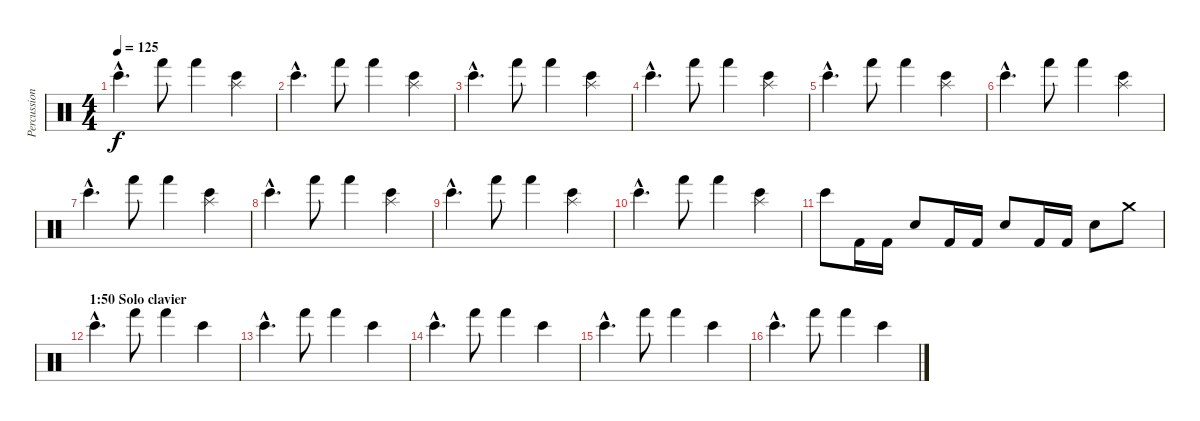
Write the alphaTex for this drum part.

\track ("Percussions" "Percussion") {instrument percussion}
\staff {score}
\articulation defaults
\ts (4 4)
\tempo 125
\clef neutral
\ks c "Bongo High (hit)"{hac}.4{d dy f} "Hand (hit)".8 "Hand (hit)".4
("Splash (hit)" "Bongo High (hit)").4 |
"Bongo High (hit)"{hac}.4{d} "Hand (hit)".8 "Hand (hit)".4 ("Splash (hit)" "Bongo High (hit)").4 |
"Bongo High (hit)"{hac}.4{d} "Hand (hit)".8 "Hand (hit)".4 ("Splash (hit)" "Bongo High (hit)").4 |
"Bongo High (hit)"{hac}.4{d} "Hand (hit)".8 "Hand (hit)".4 ("Splash (hit)" "Bongo High (hit)").4 |
"Bongo High (hit)"{hac}.4{d} "Hand (hit)".8 "Hand (hit)".4 ("Splash (hit)" "Bongo High (hit)").4 |
"Bongo High (hit)"{hac}.4{d} "Hand (hit)".8 "Hand (hit)".4 ("Splash (hit)" "Bongo High (hit)").4 |
"Bongo High (hit)"{hac}.4{d} "Hand (hit)".8 "Hand (hit)".4 ("Splash (hit)" "Bongo High (hit)").4 |
"Bongo High (hit)"{hac}.4{d} "Hand (hit)".8 "Hand (hit)".4 ("Splash (hit)" "Bongo High (hit)").4 |
"Bongo High (hit)"{hac}.4{d} "Hand (hit)".8 "Hand (hit)".4 ("Splash (hit)" "Bongo High (hit)").4 |
"Bongo High (hit)"{hac}.4{d} "Hand (hit)".8 "Hand (hit)".4 ("Splash (hit)" "Bongo High (hit)").4 |
"Bongo High (hit)".8 "Kick (hit) 2".16 "Kick (hit) 2".16 "Electric Snare (hit)".8 "Kick (hit) 2".16 "Kick (hit) 2".16 "Snare (hit) 2".8 "Kick (hit) 2".16 "Kick (hit) 2".16 "Electric Snare (hit)".8 "Crash medium (hit)".8 |
\section ("" "1:50 Solo clavier")
"Bongo High (hit)"{hac}.4{d} "Hand (hit)".8 "Hand (hit)".4 "Bongo High (hit)".4 |
"Bongo High (hit)"{hac}.4{d} "Hand (hit)".8 "Hand (hit)".4 "Bongo High (hit)".4 |
"Bongo High (hit)"{hac}.4{d} "Hand (hit)".8 "Hand (hit)".4 "Bongo High (hit)".4 |
"Bongo High (hit)"{hac}.4{d} "Hand (hit)".8 "Hand (hit)".4 "Bongo High (hit)".4 |
"Bongo High (hit)"{hac}.4{d} "Hand (hit)".8 "Hand (hit)".4 "Bongo High (hit)".4
